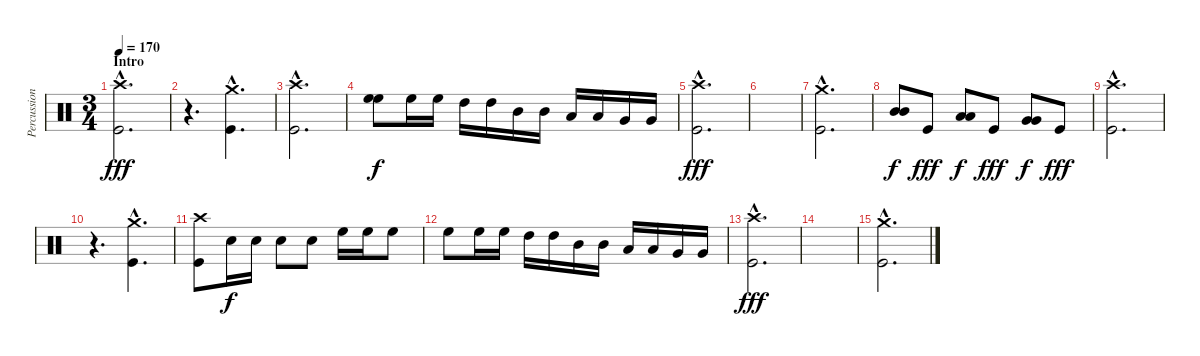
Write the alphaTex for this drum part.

\track ("Percussion" "Percussion") {instrument percussion}
\staff {score}
\articulation defaults
\ts (3 4)
\section ("" "Intro")
\tempo 170
\clef neutral
\ks c
("Crash high (hit)"{hac} "Kick (hit)"{hac}).2{d dy fff} |
r.4{d} ("Crash medium (hit)"{hac} "Kick (hit)"{hac}).4{d} |
("Crash high (hit)"{hac} "Kick (hit)"{hac}).2{d} |
("High Floor Tom (hit)" "High Floor Tom (hit)").8{bu 60 dy f} "High Floor Tom (hit)".16 "High Floor Tom (hit)".16 "High Tom (hit)".16 "High Tom (hit)".16 "Mid Tom (hit)".16 "Mid Tom (hit)".16 "Low Tom (hit)".16 "Low Tom (hit)".16 "Very Low Tom (hit)".16 "Very Low Tom (hit)".16 |
("Crash high (hit)"{hac} "Kick (hit)"{hac}).2{d dy fff} |
|
("Crash medium (hit)"{hac} "Kick (hit)"{hac}).2{d} |
("Mid Tom (hit)" "Mid Tom (hit)").8{bu 60 dy f} "Kick (hit)".8{dy fff} ("Low Tom (hit)" "Low Tom (hit)").8{bu 60 dy f} "Kick (hit)".8{dy fff} ("Very Low Tom (hit)" "Very Low Tom (hit)").8{bu 60 dy f} "Kick (hit)".8{dy fff} |
("Crash high (hit)"{hac} "Kick (hit)"{hac}).2{d} |
r.4{d} ("Crash medium (hit)"{hac} "Kick (hit)"{hac}).4{d} |
("Crash high (hit)" "Kick (hit)").8 "Electric Snare (hit)".16{dy f} "Electric Snare (hit)".16 "Electric Snare (hit)".8 "Electric Snare (hit)".8 "High Floor Tom (hit)".16 "High Floor Tom (hit)".16 "High Floor Tom (hit)".8 |
"High Floor Tom (hit)".8 "High Floor Tom (hit)".16 "High Floor Tom (hit)".16 "High Tom (hit)".16 "High Tom (hit)".16 "Mid Tom (hit)".16 "Mid Tom (hit)".16 "Low Tom (hit)".16 "Low Tom (hit)".16 "Very Low Tom (hit)".16 "Very Low Tom (hit)".16 |
("Crash high (hit)"{hac} "Kick (hit)"{hac}).2{d dy fff} |
|
("Crash medium (hit)"{hac} "Kick (hit)"{hac}).2{d}
